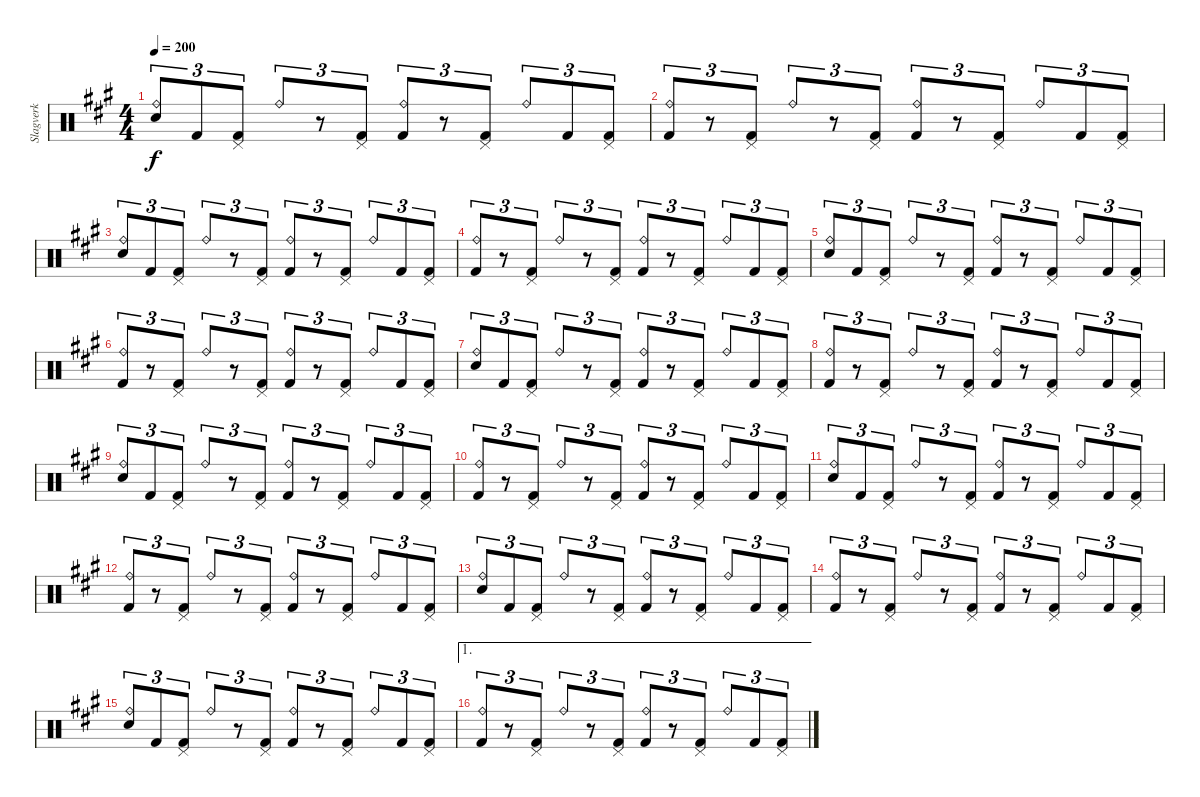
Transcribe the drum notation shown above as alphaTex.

\track ("Slagverk" "Slagverk") {instrument percussion}
\staff {score}
\articulation defaults
\ts (4 4)
\tempo 200
\clef neutral
\ks a
("Ride (bell)" "Snare (hit) 2").8{tu (3 2) dy f} "Kick (hit) 2".8{tu (3 2)} ("Pedal Hi-Hat (hit)" "Kick (hit) 2").8{tu (3 2)} "Ride (bell)".8{tu (3 2)} r.8{tu (3 2)} ("Pedal Hi-Hat (hit)" "Kick (hit) 2").8{tu (3 2)} ("Ride (bell)" "Kick (hit) 2").8{tu (3 2)} r.8{tu (3 2)} ("Pedal Hi-Hat (hit)" "Kick (hit) 2").8{tu (3 2)} "Ride (bell)".8{tu (3 2)} "Kick (hit) 2".8{tu (3 2)} ("Pedal Hi-Hat (hit)" "Kick (hit) 2").8{tu (3 2)} |
("Ride (bell)" "Kick (hit) 2").8{tu (3 2)} r.8{tu (3 2)} ("Pedal Hi-Hat (hit)" "Kick (hit) 2").8{tu (3 2)} "Ride (bell)".8{tu (3 2)} r.8{tu (3 2)} ("Pedal Hi-Hat (hit)" "Kick (hit) 2").8{tu (3 2)} ("Ride (bell)" "Kick (hit) 2").8{tu (3 2)} r.8{tu (3 2)} ("Pedal Hi-Hat (hit)" "Kick (hit) 2").8{tu (3 2)} "Ride (bell)".8{tu (3 2)} "Kick (hit) 2".8{tu (3 2)} ("Pedal Hi-Hat (hit)" "Kick (hit) 2").8{tu (3 2)} |
("Ride (bell)" "Snare (hit) 2").8{tu (3 2)} "Kick (hit) 2".8{tu (3 2)} ("Pedal Hi-Hat (hit)" "Kick (hit) 2").8{tu (3 2)} "Ride (bell)".8{tu (3 2)} r.8{tu (3 2)} ("Pedal Hi-Hat (hit)" "Kick (hit) 2").8{tu (3 2)} ("Ride (bell)" "Kick (hit) 2").8{tu (3 2)} r.8{tu (3 2)} ("Pedal Hi-Hat (hit)" "Kick (hit) 2").8{tu (3 2)} "Ride (bell)".8{tu (3 2)} "Kick (hit) 2".8{tu (3 2)} ("Pedal Hi-Hat (hit)" "Kick (hit) 2").8{tu (3 2)} |
("Ride (bell)" "Kick (hit) 2").8{tu (3 2)} r.8{tu (3 2)} ("Pedal Hi-Hat (hit)" "Kick (hit) 2").8{tu (3 2)} "Ride (bell)".8{tu (3 2)} r.8{tu (3 2)} ("Pedal Hi-Hat (hit)" "Kick (hit) 2").8{tu (3 2)} ("Ride (bell)" "Kick (hit) 2").8{tu (3 2)} r.8{tu (3 2)} ("Pedal Hi-Hat (hit)" "Kick (hit) 2").8{tu (3 2)} "Ride (bell)".8{tu (3 2)} "Kick (hit) 2".8{tu (3 2)} ("Pedal Hi-Hat (hit)" "Kick (hit) 2").8{tu (3 2)} |
("Ride (bell)" "Snare (hit) 2").8{tu (3 2)} "Kick (hit) 2".8{tu (3 2)} ("Pedal Hi-Hat (hit)" "Kick (hit) 2").8{tu (3 2)} "Ride (bell)".8{tu (3 2)} r.8{tu (3 2)} ("Pedal Hi-Hat (hit)" "Kick (hit) 2").8{tu (3 2)} ("Ride (bell)" "Kick (hit) 2").8{tu (3 2)} r.8{tu (3 2)} ("Pedal Hi-Hat (hit)" "Kick (hit) 2").8{tu (3 2)} "Ride (bell)".8{tu (3 2)} "Kick (hit) 2".8{tu (3 2)} ("Pedal Hi-Hat (hit)" "Kick (hit) 2").8{tu (3 2)} |
("Ride (bell)" "Kick (hit) 2").8{tu (3 2)} r.8{tu (3 2)} ("Pedal Hi-Hat (hit)" "Kick (hit) 2").8{tu (3 2)} "Ride (bell)".8{tu (3 2)} r.8{tu (3 2)} ("Pedal Hi-Hat (hit)" "Kick (hit) 2").8{tu (3 2)} ("Ride (bell)" "Kick (hit) 2").8{tu (3 2)} r.8{tu (3 2)} ("Pedal Hi-Hat (hit)" "Kick (hit) 2").8{tu (3 2)} "Ride (bell)".8{tu (3 2)} "Kick (hit) 2".8{tu (3 2)} ("Pedal Hi-Hat (hit)" "Kick (hit) 2").8{tu (3 2)} |
("Ride (bell)" "Snare (hit) 2").8{tu (3 2)} "Kick (hit) 2".8{tu (3 2)} ("Pedal Hi-Hat (hit)" "Kick (hit) 2").8{tu (3 2)} "Ride (bell)".8{tu (3 2)} r.8{tu (3 2)} ("Pedal Hi-Hat (hit)" "Kick (hit) 2").8{tu (3 2)} ("Ride (bell)" "Kick (hit) 2").8{tu (3 2)} r.8{tu (3 2)} ("Pedal Hi-Hat (hit)" "Kick (hit) 2").8{tu (3 2)} "Ride (bell)".8{tu (3 2)} "Kick (hit) 2".8{tu (3 2)} ("Pedal Hi-Hat (hit)" "Kick (hit) 2").8{tu (3 2)} |
("Ride (bell)" "Kick (hit) 2").8{tu (3 2)} r.8{tu (3 2)} ("Pedal Hi-Hat (hit)" "Kick (hit) 2").8{tu (3 2)} "Ride (bell)".8{tu (3 2)} r.8{tu (3 2)} ("Pedal Hi-Hat (hit)" "Kick (hit) 2").8{tu (3 2)} ("Ride (bell)" "Kick (hit) 2").8{tu (3 2)} r.8{tu (3 2)} ("Pedal Hi-Hat (hit)" "Kick (hit) 2").8{tu (3 2)} "Ride (bell)".8{tu (3 2)} "Kick (hit) 2".8{tu (3 2)} ("Pedal Hi-Hat (hit)" "Kick (hit) 2").8{tu (3 2)} |
("Ride (bell)" "Snare (hit) 2").8{tu (3 2)} "Kick (hit) 2".8{tu (3 2)} ("Pedal Hi-Hat (hit)" "Kick (hit) 2").8{tu (3 2)} "Ride (bell)".8{tu (3 2)} r.8{tu (3 2)} ("Pedal Hi-Hat (hit)" "Kick (hit) 2").8{tu (3 2)} ("Ride (bell)" "Kick (hit) 2").8{tu (3 2)} r.8{tu (3 2)} ("Pedal Hi-Hat (hit)" "Kick (hit) 2").8{tu (3 2)} "Ride (bell)".8{tu (3 2)} "Kick (hit) 2".8{tu (3 2)} ("Pedal Hi-Hat (hit)" "Kick (hit) 2").8{tu (3 2)} |
("Ride (bell)" "Kick (hit) 2").8{tu (3 2)} r.8{tu (3 2)} ("Pedal Hi-Hat (hit)" "Kick (hit) 2").8{tu (3 2)} "Ride (bell)".8{tu (3 2)} r.8{tu (3 2)} ("Pedal Hi-Hat (hit)" "Kick (hit) 2").8{tu (3 2)} ("Ride (bell)" "Kick (hit) 2").8{tu (3 2)} r.8{tu (3 2)} ("Pedal Hi-Hat (hit)" "Kick (hit) 2").8{tu (3 2)} "Ride (bell)".8{tu (3 2)} "Kick (hit) 2".8{tu (3 2)} ("Pedal Hi-Hat (hit)" "Kick (hit) 2").8{tu (3 2)} |
("Ride (bell)" "Snare (hit) 2").8{tu (3 2)} "Kick (hit) 2".8{tu (3 2)} ("Pedal Hi-Hat (hit)" "Kick (hit) 2").8{tu (3 2)} "Ride (bell)".8{tu (3 2)} r.8{tu (3 2)} ("Pedal Hi-Hat (hit)" "Kick (hit) 2").8{tu (3 2)} ("Ride (bell)" "Kick (hit) 2").8{tu (3 2)} r.8{tu (3 2)} ("Pedal Hi-Hat (hit)" "Kick (hit) 2").8{tu (3 2)} "Ride (bell)".8{tu (3 2)} "Kick (hit) 2".8{tu (3 2)} ("Pedal Hi-Hat (hit)" "Kick (hit) 2").8{tu (3 2)} |
("Ride (bell)" "Kick (hit) 2").8{tu (3 2)} r.8{tu (3 2)} ("Pedal Hi-Hat (hit)" "Kick (hit) 2").8{tu (3 2)} "Ride (bell)".8{tu (3 2)} r.8{tu (3 2)} ("Pedal Hi-Hat (hit)" "Kick (hit) 2").8{tu (3 2)} ("Ride (bell)" "Kick (hit) 2").8{tu (3 2)} r.8{tu (3 2)} ("Pedal Hi-Hat (hit)" "Kick (hit) 2").8{tu (3 2)} "Ride (bell)".8{tu (3 2)} "Kick (hit) 2".8{tu (3 2)} ("Pedal Hi-Hat (hit)" "Kick (hit) 2").8{tu (3 2)} |
("Ride (bell)" "Snare (hit) 2").8{tu (3 2)} "Kick (hit) 2".8{tu (3 2)} ("Pedal Hi-Hat (hit)" "Kick (hit) 2").8{tu (3 2)} "Ride (bell)".8{tu (3 2)} r.8{tu (3 2)} ("Pedal Hi-Hat (hit)" "Kick (hit) 2").8{tu (3 2)} ("Ride (bell)" "Kick (hit) 2").8{tu (3 2)} r.8{tu (3 2)} ("Pedal Hi-Hat (hit)" "Kick (hit) 2").8{tu (3 2)} "Ride (bell)".8{tu (3 2)} "Kick (hit) 2".8{tu (3 2)} ("Pedal Hi-Hat (hit)" "Kick (hit) 2").8{tu (3 2)} |
("Ride (bell)" "Kick (hit) 2").8{tu (3 2)} r.8{tu (3 2)} ("Pedal Hi-Hat (hit)" "Kick (hit) 2").8{tu (3 2)} "Ride (bell)".8{tu (3 2)} r.8{tu (3 2)} ("Pedal Hi-Hat (hit)" "Kick (hit) 2").8{tu (3 2)} ("Ride (bell)" "Kick (hit) 2").8{tu (3 2)} r.8{tu (3 2)} ("Pedal Hi-Hat (hit)" "Kick (hit) 2").8{tu (3 2)} "Ride (bell)".8{tu (3 2)} "Kick (hit) 2".8{tu (3 2)} ("Pedal Hi-Hat (hit)" "Kick (hit) 2").8{tu (3 2)} |
("Ride (bell)" "Snare (hit) 2").8{tu (3 2)} "Kick (hit) 2".8{tu (3 2)} ("Pedal Hi-Hat (hit)" "Kick (hit) 2").8{tu (3 2)} "Ride (bell)".8{tu (3 2)} r.8{tu (3 2)} ("Pedal Hi-Hat (hit)" "Kick (hit) 2").8{tu (3 2)} ("Ride (bell)" "Kick (hit) 2").8{tu (3 2)} r.8{tu (3 2)} ("Pedal Hi-Hat (hit)" "Kick (hit) 2").8{tu (3 2)} "Ride (bell)".8{tu (3 2)} "Kick (hit) 2".8{tu (3 2)} ("Pedal Hi-Hat (hit)" "Kick (hit) 2").8{tu (3 2)} |
\ae 1
("Ride (bell)" "Kick (hit) 2").8{tu (3 2)} r.8{tu (3 2)} ("Pedal Hi-Hat (hit)" "Kick (hit) 2").8{tu (3 2)} "Ride (bell)".8{tu (3 2)} r.8{tu (3 2)} ("Pedal Hi-Hat (hit)" "Kick (hit) 2").8{tu (3 2)} ("Ride (bell)" "Kick (hit) 2").8{tu (3 2)} r.8{tu (3 2)} ("Pedal Hi-Hat (hit)" "Kick (hit) 2").8{tu (3 2)} "Ride (bell)".8{tu (3 2)} "Kick (hit) 2".8{tu (3 2)} ("Pedal Hi-Hat (hit)" "Kick (hit) 2").8{tu (3 2)}
